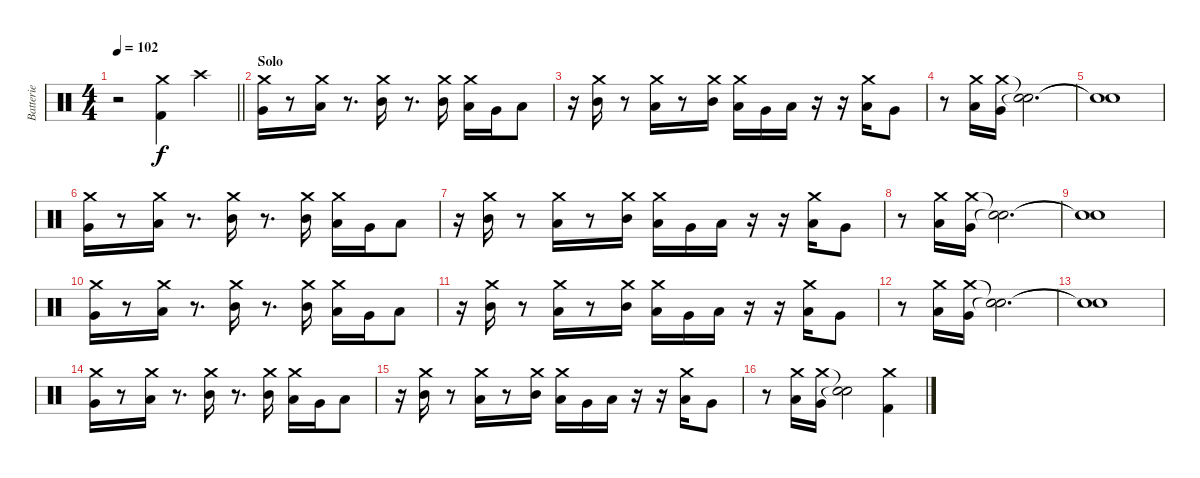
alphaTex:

\track ("Batterie" "Batterie") {instrument percussion}
\staff {score}
\articulation defaults
\ts (4 4)
\tempo 102
\clef neutral
\barLineRight lightlight
\ks c
r.2{dy f} ("Crash medium (hit)" "Kick (hit) 2").4 "Crash high (hit)".4 |
\section ("" "Solo")
("Crash medium (hit)" "Very Low Tom (hit)").16 r.8 ("Crash medium (hit)" "Low Tom (hit)").16 r.8{d} ("Crash medium (hit)" "Mid Tom (hit)").16 r.8{d} ("Crash medium (hit)" "Mid Tom (hit)").16 ("Crash medium (hit)" "Low Tom (hit)").16 "Very Low Tom (hit)".16 "Low Floor Tom (hit)".8 |
r.16 ("Crash medium (hit)" "Mid Tom (hit)").16 r.8 ("Crash medium (hit)" "Low Tom (hit)").16 r.8 ("Crash medium (hit)" "Mid Tom (hit)").16 ("Crash medium (hit)" "Low Tom (hit)").16 "Very Low Tom (hit)".16 "Low Floor Tom (hit)".16 r.16 r.16 ("Crash medium (hit)" "Low Tom (hit)").16 "Very Low Tom (hit)".8 |
r.8 ("Crash medium (hit)" "Low Tom (hit)").16 ("Crash medium (hit)" "Very Low Tom (hit)").16 ("Snare (hit)"{t} "Snare (hit)"{t}).2{d} |
("Snare (hit)"{t} "Snare (hit)"{t}).1 |
("Crash medium (hit)" "Very Low Tom (hit)").16 r.8 ("Crash medium (hit)" "Low Tom (hit)").16 r.8{d} ("Crash medium (hit)" "Mid Tom (hit)").16 r.8{d} ("Crash medium (hit)" "Mid Tom (hit)").16 ("Crash medium (hit)" "Low Tom (hit)").16 "Very Low Tom (hit)".16 "Low Floor Tom (hit)".8 |
r.16 ("Crash medium (hit)" "Mid Tom (hit)").16 r.8 ("Crash medium (hit)" "Low Tom (hit)").16 r.8 ("Crash medium (hit)" "Mid Tom (hit)").16 ("Crash medium (hit)" "Low Tom (hit)").16 "Very Low Tom (hit)".16 "Low Floor Tom (hit)".16 r.16 r.16 ("Crash medium (hit)" "Low Tom (hit)").16 "Very Low Tom (hit)".8 |
r.8 ("Crash medium (hit)" "Low Tom (hit)").16 ("Crash medium (hit)" "Very Low Tom (hit)").16 ("Snare (hit)"{t} "Snare (hit)"{t}).2{d} |
("Snare (hit)"{t} "Snare (hit)"{t}).1 |
("Crash medium (hit)" "Very Low Tom (hit)").16 r.8 ("Crash medium (hit)" "Low Tom (hit)").16 r.8{d} ("Crash medium (hit)" "Mid Tom (hit)").16 r.8{d} ("Crash medium (hit)" "Mid Tom (hit)").16 ("Crash medium (hit)" "Low Tom (hit)").16 "Very Low Tom (hit)".16 "Low Floor Tom (hit)".8 |
r.16 ("Crash medium (hit)" "Mid Tom (hit)").16 r.8 ("Crash medium (hit)" "Low Tom (hit)").16 r.8 ("Crash medium (hit)" "Mid Tom (hit)").16 ("Crash medium (hit)" "Low Tom (hit)").16 "Very Low Tom (hit)".16 "Low Floor Tom (hit)".16 r.16 r.16 ("Crash medium (hit)" "Low Tom (hit)").16 "Very Low Tom (hit)".8 |
r.8 ("Crash medium (hit)" "Low Tom (hit)").16 ("Crash medium (hit)" "Very Low Tom (hit)").16 ("Snare (hit)"{t} "Snare (hit)"{t}).2{d} |
("Snare (hit)"{t} "Snare (hit)"{t}).1 |
("Crash medium (hit)" "Very Low Tom (hit)").16 r.8 ("Crash medium (hit)" "Low Tom (hit)").16 r.8{d} ("Crash medium (hit)" "Mid Tom (hit)").16 r.8{d} ("Crash medium (hit)" "Mid Tom (hit)").16 ("Crash medium (hit)" "Low Tom (hit)").16 "Very Low Tom (hit)".16 "Low Floor Tom (hit)".8 |
r.16 ("Crash medium (hit)" "Mid Tom (hit)").16 r.8 ("Crash medium (hit)" "Low Tom (hit)").16 r.8 ("Crash medium (hit)" "Mid Tom (hit)").16 ("Crash medium (hit)" "Low Tom (hit)").16 "Very Low Tom (hit)".16 "Low Floor Tom (hit)".16 r.16 r.16 ("Crash medium (hit)" "Low Tom (hit)").16 "Very Low Tom (hit)".8 |
r.8 ("Crash medium (hit)" "Low Tom (hit)").16 ("Crash medium (hit)" "Very Low Tom (hit)").16 ("Snare (hit)"{t} "Snare (hit)"{t}).2 ("Crash medium (hit)" "Kick (hit) 2").4
